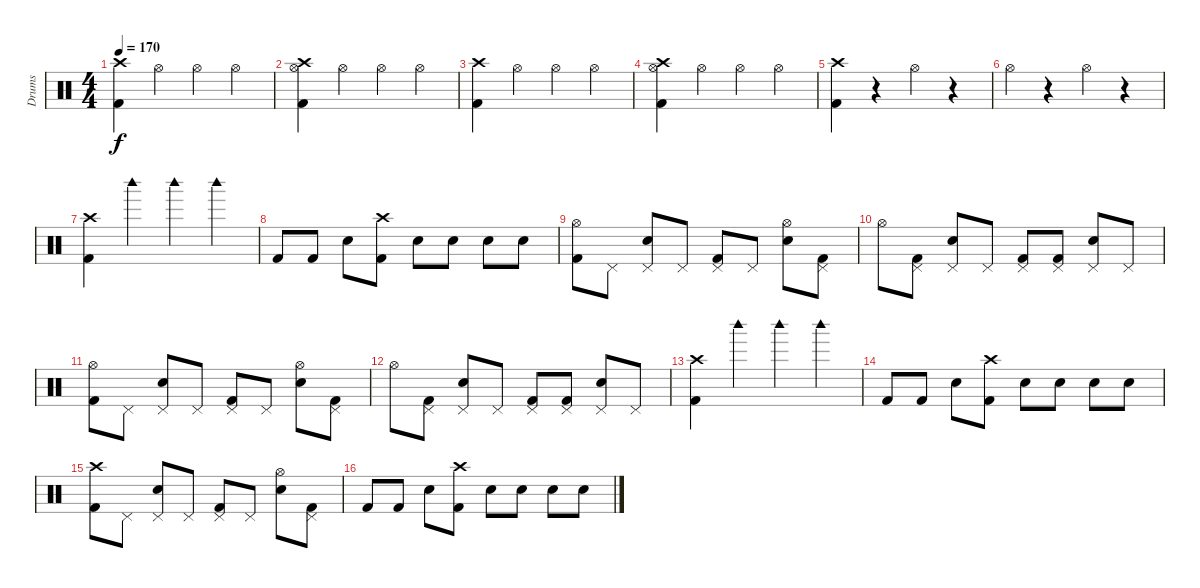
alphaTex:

\track ("Drums" "Drums") {instrument percussion}
\staff {score}
\articulation defaults
\ts (4 4)
\tempo 170
\clef neutral
\ks c
("Crash high (hit)" "Kick (hit) 2").4{dy f} "Hi-Hat (open)".4 "Hi-Hat (open)".4 "Hi-Hat (open)".4 |
("Crash high (hit)" "Hi-Hat (open)" "Kick (hit) 2").4 "Hi-Hat (open)".4 "Hi-Hat (open)".4 "Hi-Hat (open)".4 |
("Crash high (hit)" "Kick (hit) 2").4 "Hi-Hat (open)".4 "Hi-Hat (open)".4 "Hi-Hat (open)".4 |
("Crash high (hit)" "Hi-Hat (open)" "Kick (hit) 2").4 "Hi-Hat (open)".4 "Hi-Hat (open)".4 "Hi-Hat (open)".4 |
("Crash high (hit)" "Kick (hit) 2").4 r.4 "Hi-Hat (open)".4 r.4 |
"Hi-Hat (open)".4 r.4 "Hi-Hat (open)".4 r.4 |
("Crash high (hit)" "Kick (hit) 2").4 "Woodblock high (hit)".4 "Woodblock high (hit)".4 "Woodblock high (hit)".4 |
"Kick (hit) 2".8 "Kick (hit) 2".8 "Snare (hit) 2".8 ("Crash high (hit)" "Kick (hit) 2").8 "Snare (hit) 2".8 "Snare (hit) 2".8 "Snare (hit) 2".8 "Snare (hit) 2".8 |
("Hi-Hat (open)" "Kick (hit) 2").8 "Pedal Hi-Hat (hit)".8 ("Pedal Hi-Hat (hit)" "Snare (hit) 2").8 "Pedal Hi-Hat (hit)".8 ("Pedal Hi-Hat (hit)" "Kick (hit) 2").8 "Pedal Hi-Hat (hit)".8 ("Hi-Hat (open)" "Snare (hit) 2").8 ("Pedal Hi-Hat (hit)" "Kick (hit) 2").8 |
"Hi-Hat (open)".8 ("Pedal Hi-Hat (hit)" "Kick (hit) 2").8 ("Pedal Hi-Hat (hit)" "Snare (hit) 2").8 "Pedal Hi-Hat (hit)".8 ("Pedal Hi-Hat (hit)" "Kick (hit) 2").8 ("Pedal Hi-Hat (hit)" "Kick (hit) 2").8 ("Pedal Hi-Hat (hit)" "Snare (hit) 2").8 "Pedal Hi-Hat (hit)".8 |
("Hi-Hat (open)" "Kick (hit) 2").8 "Pedal Hi-Hat (hit)".8 ("Pedal Hi-Hat (hit)" "Snare (hit) 2").8 "Pedal Hi-Hat (hit)".8 ("Pedal Hi-Hat (hit)" "Kick (hit) 2").8 "Pedal Hi-Hat (hit)".8 ("Hi-Hat (open)" "Snare (hit) 2").8 ("Pedal Hi-Hat (hit)" "Kick (hit) 2").8 |
"Hi-Hat (open)".8 ("Pedal Hi-Hat (hit)" "Kick (hit) 2").8 ("Pedal Hi-Hat (hit)" "Snare (hit) 2").8 "Pedal Hi-Hat (hit)".8 ("Pedal Hi-Hat (hit)" "Kick (hit) 2").8 ("Pedal Hi-Hat (hit)" "Kick (hit) 2").8 ("Pedal Hi-Hat (hit)" "Snare (hit) 2").8 "Pedal Hi-Hat (hit)".8 |
("Crash high (hit)" "Kick (hit) 2").4 "Woodblock high (hit)".4 "Woodblock high (hit)".4 "Woodblock high (hit)".4 |
"Kick (hit) 2".8 "Kick (hit) 2".8 "Snare (hit) 2".8 ("Crash high (hit)" "Kick (hit) 2").8 "Snare (hit) 2".8 "Snare (hit) 2".8 "Snare (hit) 2".8 "Snare (hit) 2".8 |
("Crash high (hit)" "Kick (hit) 2").8 "Pedal Hi-Hat (hit)".8 ("Pedal Hi-Hat (hit)" "Snare (hit) 2").8 "Pedal Hi-Hat (hit)".8 ("Pedal Hi-Hat (hit)" "Kick (hit) 2").8 "Pedal Hi-Hat (hit)".8 ("Hi-Hat (open)" "Snare (hit) 2").8 ("Pedal Hi-Hat (hit)" "Kick (hit) 2").8 |
"Kick (hit) 2".8 "Kick (hit) 2".8 "Snare (hit) 2".8 ("Crash high (hit)" "Kick (hit) 2").8 "Snare (hit) 2".8 "Snare (hit) 2".8 "Snare (hit) 2".8 "Snare (hit) 2".8
